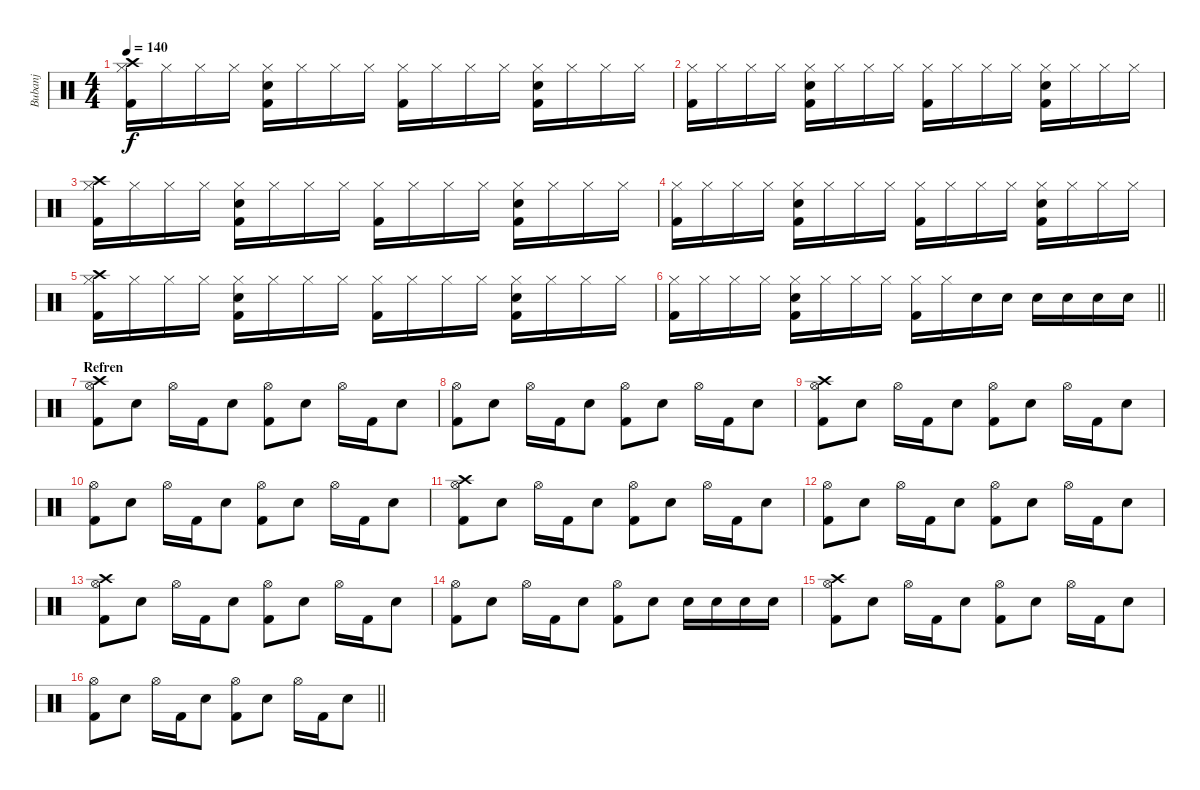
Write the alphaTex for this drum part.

\track ("Bubanj" "Bubanj") {instrument percussion}
\staff {score}
\articulation defaults
\ts (4 4)
\tempo 140
\clef neutral
\ks c
("Kick (hit) 2" "Hi-Hat (closed)" "Crash high (hit)").16{dy f} "Hi-Hat (closed)".16 "Hi-Hat (closed)".16 "Hi-Hat (closed)".16 ("Kick (hit) 2" "Snare (hit) 2" "Hi-Hat (closed)").16 "Hi-Hat (closed)".16 "Hi-Hat (closed)".16 "Hi-Hat (closed)".16 ("Kick (hit) 2" "Hi-Hat (closed)").16 "Hi-Hat (closed)".16 "Hi-Hat (closed)".16 "Hi-Hat (closed)".16 ("Kick (hit) 2" "Snare (hit) 2" "Hi-Hat (closed)").16 "Hi-Hat (closed)".16 "Hi-Hat (closed)".16 "Hi-Hat (closed)".16 |
("Kick (hit) 2" "Hi-Hat (closed)").16 "Hi-Hat (closed)".16 "Hi-Hat (closed)".16 "Hi-Hat (closed)".16 ("Kick (hit) 2" "Snare (hit) 2" "Hi-Hat (closed)").16 "Hi-Hat (closed)".16 "Hi-Hat (closed)".16 "Hi-Hat (closed)".16 ("Kick (hit) 2" "Hi-Hat (closed)").16 "Hi-Hat (closed)".16 "Hi-Hat (closed)".16 "Hi-Hat (closed)".16 ("Kick (hit) 2" "Snare (hit) 2" "Hi-Hat (closed)").16 "Hi-Hat (closed)".16 "Hi-Hat (closed)".16 "Hi-Hat (closed)".16 |
("Kick (hit) 2" "Hi-Hat (closed)" "Crash high (hit)").16 "Hi-Hat (closed)".16 "Hi-Hat (closed)".16 "Hi-Hat (closed)".16 ("Kick (hit) 2" "Snare (hit) 2" "Hi-Hat (closed)").16 "Hi-Hat (closed)".16 "Hi-Hat (closed)".16 "Hi-Hat (closed)".16 ("Kick (hit) 2" "Hi-Hat (closed)").16 "Hi-Hat (closed)".16 "Hi-Hat (closed)".16 "Hi-Hat (closed)".16 ("Kick (hit) 2" "Snare (hit) 2" "Hi-Hat (closed)").16 "Hi-Hat (closed)".16 "Hi-Hat (closed)".16 "Hi-Hat (closed)".16 |
("Kick (hit) 2" "Hi-Hat (closed)").16 "Hi-Hat (closed)".16 "Hi-Hat (closed)".16 "Hi-Hat (closed)".16 ("Kick (hit) 2" "Snare (hit) 2" "Hi-Hat (closed)").16 "Hi-Hat (closed)".16 "Hi-Hat (closed)".16 "Hi-Hat (closed)".16 ("Kick (hit) 2" "Hi-Hat (closed)").16 "Hi-Hat (closed)".16 "Hi-Hat (closed)".16 "Hi-Hat (closed)".16 ("Kick (hit) 2" "Snare (hit) 2" "Hi-Hat (closed)").16 "Hi-Hat (closed)".16 "Hi-Hat (closed)".16 "Hi-Hat (closed)".16 |
("Kick (hit) 2" "Hi-Hat (closed)" "Crash high (hit)").16 "Hi-Hat (closed)".16 "Hi-Hat (closed)".16 "Hi-Hat (closed)".16 ("Kick (hit) 2" "Snare (hit) 2" "Hi-Hat (closed)").16 "Hi-Hat (closed)".16 "Hi-Hat (closed)".16 "Hi-Hat (closed)".16 ("Kick (hit) 2" "Hi-Hat (closed)").16 "Hi-Hat (closed)".16 "Hi-Hat (closed)".16 "Hi-Hat (closed)".16 ("Kick (hit) 2" "Snare (hit) 2" "Hi-Hat (closed)").16 "Hi-Hat (closed)".16 "Hi-Hat (closed)".16 "Hi-Hat (closed)".16 |
\barLineRight lightlight
("Kick (hit) 2" "Hi-Hat (closed)").16 "Hi-Hat (closed)".16 "Hi-Hat (closed)".16 "Hi-Hat (closed)".16 ("Kick (hit) 2" "Snare (hit) 2" "Hi-Hat (closed)").16 "Hi-Hat (closed)".16 "Hi-Hat (closed)".16 "Hi-Hat (closed)".16 ("Kick (hit) 2" "Hi-Hat (closed)").16 "Hi-Hat (closed)".16 "Snare (hit) 2".16 "Snare (hit) 2".16 "Snare (hit) 2".16 "Snare (hit) 2".16 "Snare (hit) 2".16 "Snare (hit) 2".16 |
\section ("" "Refren")
("Kick (hit) 2" "Hi-Hat (open)" "Crash high (hit)").8 "Snare (hit) 2".8 "Hi-Hat (open)".16 "Kick (hit) 2".16 "Snare (hit) 2".8 ("Kick (hit) 2" "Hi-Hat (open)").8 "Snare (hit) 2".8 "Hi-Hat (open)".16 "Kick (hit) 2".16 "Snare (hit) 2".8 |
("Kick (hit) 2" "Hi-Hat (open)").8 "Snare (hit) 2".8 "Hi-Hat (open)".16 "Kick (hit) 2".16 "Snare (hit) 2".8 ("Kick (hit) 2" "Hi-Hat (open)").8 "Snare (hit) 2".8 "Hi-Hat (open)".16 "Kick (hit) 2".16 "Snare (hit) 2".8 |
("Kick (hit) 2" "Hi-Hat (open)" "Crash high (hit)").8 "Snare (hit) 2".8 "Hi-Hat (open)".16 "Kick (hit) 2".16 "Snare (hit) 2".8 ("Kick (hit) 2" "Hi-Hat (open)").8 "Snare (hit) 2".8 "Hi-Hat (open)".16 "Kick (hit) 2".16 "Snare (hit) 2".8 |
("Kick (hit) 2" "Hi-Hat (open)").8 "Snare (hit) 2".8 "Hi-Hat (open)".16 "Kick (hit) 2".16 "Snare (hit) 2".8 ("Kick (hit) 2" "Hi-Hat (open)").8 "Snare (hit) 2".8 "Hi-Hat (open)".16 "Kick (hit) 2".16 "Snare (hit) 2".8 |
("Kick (hit) 2" "Hi-Hat (open)" "Crash high (hit)").8 "Snare (hit) 2".8 "Hi-Hat (open)".16 "Kick (hit) 2".16 "Snare (hit) 2".8 ("Kick (hit) 2" "Hi-Hat (open)").8 "Snare (hit) 2".8 "Hi-Hat (open)".16 "Kick (hit) 2".16 "Snare (hit) 2".8 |
("Kick (hit) 2" "Hi-Hat (open)").8 "Snare (hit) 2".8 "Hi-Hat (open)".16 "Kick (hit) 2".16 "Snare (hit) 2".8 ("Kick (hit) 2" "Hi-Hat (open)").8 "Snare (hit) 2".8 "Hi-Hat (open)".16 "Kick (hit) 2".16 "Snare (hit) 2".8 |
("Kick (hit) 2" "Hi-Hat (open)" "Crash high (hit)").8 "Snare (hit) 2".8 "Hi-Hat (open)".16 "Kick (hit) 2".16 "Snare (hit) 2".8 ("Kick (hit) 2" "Hi-Hat (open)").8 "Snare (hit) 2".8 "Hi-Hat (open)".16 "Kick (hit) 2".16 "Snare (hit) 2".8 |
("Kick (hit) 2" "Hi-Hat (open)").8 "Snare (hit) 2".8 "Hi-Hat (open)".16 "Kick (hit) 2".16 "Snare (hit) 2".8 ("Kick (hit) 2" "Hi-Hat (open)").8 "Snare (hit) 2".8 "Snare (hit) 2".16 "Snare (hit) 2".16 "Snare (hit) 2".16 "Snare (hit) 2".16 |
("Kick (hit) 2" "Hi-Hat (open)" "Crash high (hit)").8 "Snare (hit) 2".8 "Hi-Hat (open)".16 "Kick (hit) 2".16 "Snare (hit) 2".8 ("Kick (hit) 2" "Hi-Hat (open)").8 "Snare (hit) 2".8 "Hi-Hat (open)".16 "Kick (hit) 2".16 "Snare (hit) 2".8 |
\barLineRight lightlight
("Kick (hit) 2" "Hi-Hat (open)").8 "Snare (hit) 2".8 "Hi-Hat (open)".16 "Kick (hit) 2".16 "Snare (hit) 2".8 ("Kick (hit) 2" "Hi-Hat (open)").8 "Snare (hit) 2".8 "Hi-Hat (open)".16 "Kick (hit) 2".16 "Snare (hit) 2".8
